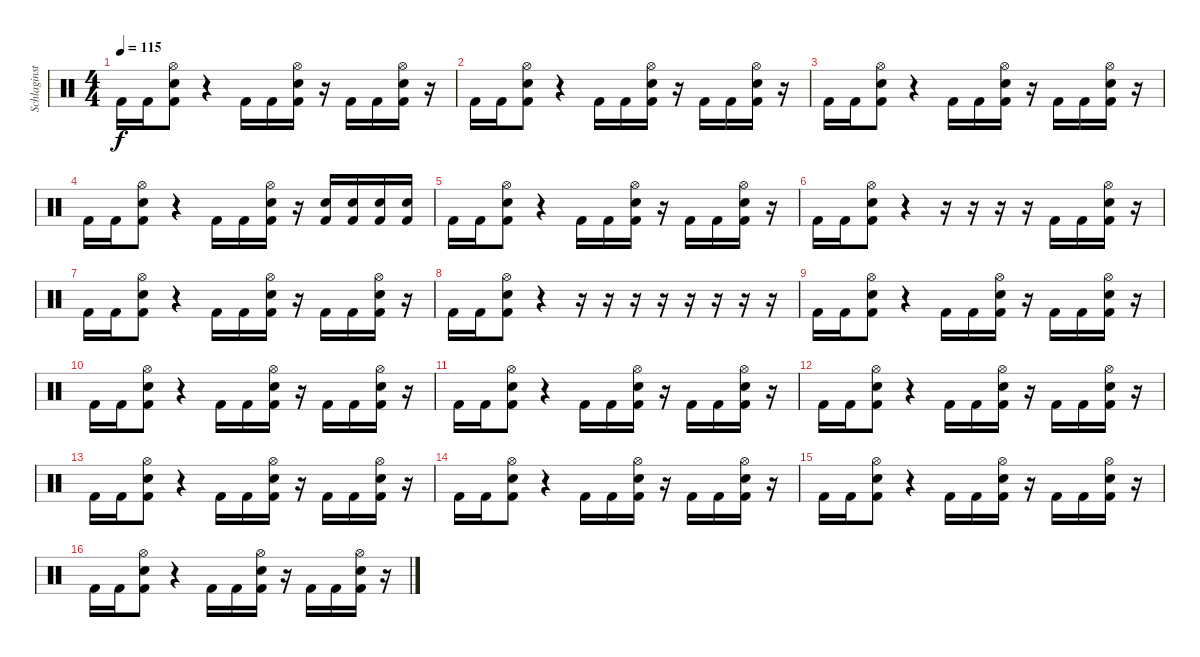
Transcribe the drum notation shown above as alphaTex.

\track ("Schlaginstrumente - Auswahl" "Schlaginst") {instrument percussion}
\staff {score}
\articulation defaults
\ts (4 4)
\tempo 115
\clef neutral
\ks c "Kick (hit) 2".16{dy f} "Kick (hit) 2".16
("Kick (hit) 2" "Snare (hit) 2" "Hi-Hat (open)").8 r.4 "Kick (hit) 2".16 "Kick (hit) 2".16 ("Kick (hit) 2" "Snare (hit) 2" "Hi-Hat (open)").16 r.16 "Kick (hit) 2".16 "Kick (hit) 2".16 ("Kick (hit) 2" "Snare (hit) 2" "Hi-Hat (open)").16 r.16 |
"Kick (hit) 2".16 "Kick (hit) 2".16 ("Kick (hit) 2" "Snare (hit) 2" "Hi-Hat (open)").8 r.4 "Kick (hit) 2".16 "Kick (hit) 2".16 ("Kick (hit) 2" "Snare (hit) 2" "Hi-Hat (open)").16 r.16 "Kick (hit) 2".16 "Kick (hit) 2".16 ("Kick (hit) 2" "Snare (hit) 2" "Hi-Hat (open)").16 r.16 |
"Kick (hit) 2".16 "Kick (hit) 2".16 ("Kick (hit) 2" "Snare (hit) 2" "Hi-Hat (open)").8 r.4 "Kick (hit) 2".16 "Kick (hit) 2".16 ("Kick (hit) 2" "Snare (hit) 2" "Hi-Hat (open)").16 r.16 "Kick (hit) 2".16 "Kick (hit) 2".16 ("Kick (hit) 2" "Snare (hit) 2" "Hi-Hat (open)").16 r.16 |
"Kick (hit) 2".16 "Kick (hit) 2".16 ("Kick (hit) 2" "Snare (hit) 2" "Hi-Hat (open)").8 r.4 "Kick (hit) 2".16 "Kick (hit) 2".16 ("Kick (hit) 2" "Snare (hit) 2" "Hi-Hat (open)").16 r.16 ("Kick (hit) 2" "Snare (hit) 2").16 ("Kick (hit) 2" "Snare (hit) 2").16 ("Kick (hit) 2" "Snare (hit) 2").16 ("Kick (hit) 2" "Snare (hit) 2").16 |
"Kick (hit) 2".16 "Kick (hit) 2".16 ("Kick (hit) 2" "Snare (hit) 2" "Hi-Hat (open)").8 r.4 "Kick (hit) 2".16 "Kick (hit) 2".16 ("Kick (hit) 2" "Snare (hit) 2" "Hi-Hat (open)").16 r.16 "Kick (hit) 2".16 "Kick (hit) 2".16 ("Kick (hit) 2" "Snare (hit) 2" "Hi-Hat (open)").16 r.16 |
"Kick (hit) 2".16 "Kick (hit) 2".16 ("Kick (hit) 2" "Snare (hit) 2" "Hi-Hat (open)").8 r.4 r.16 r.16 r.16 r.16 "Kick (hit) 2".16 "Kick (hit) 2".16 ("Kick (hit) 2" "Snare (hit) 2" "Hi-Hat (open)").16 r.16 |
"Kick (hit) 2".16 "Kick (hit) 2".16 ("Kick (hit) 2" "Snare (hit) 2" "Hi-Hat (open)").8 r.4 "Kick (hit) 2".16 "Kick (hit) 2".16 ("Kick (hit) 2" "Snare (hit) 2" "Hi-Hat (open)").16 r.16 "Kick (hit) 2".16 "Kick (hit) 2".16 ("Kick (hit) 2" "Snare (hit) 2" "Hi-Hat (open)").16 r.16 |
"Kick (hit) 2".16 "Kick (hit) 2".16 ("Kick (hit) 2" "Snare (hit) 2" "Hi-Hat (open)").8 r.4 r.16 r.16 r.16 r.16 r.16 r.16 r.16 r.16 |
"Kick (hit) 2".16 "Kick (hit) 2".16 ("Kick (hit) 2" "Snare (hit) 2" "Hi-Hat (open)").8 r.4 "Kick (hit) 2".16 "Kick (hit) 2".16 ("Kick (hit) 2" "Snare (hit) 2" "Hi-Hat (open)").16 r.16 "Kick (hit) 2".16 "Kick (hit) 2".16 ("Kick (hit) 2" "Snare (hit) 2" "Hi-Hat (open)").16 r.16 |
"Kick (hit) 2".16 "Kick (hit) 2".16 ("Kick (hit) 2" "Snare (hit) 2" "Hi-Hat (open)").8 r.4 "Kick (hit) 2".16 "Kick (hit) 2".16 ("Kick (hit) 2" "Snare (hit) 2" "Hi-Hat (open)").16 r.16 "Kick (hit) 2".16 "Kick (hit) 2".16 ("Kick (hit) 2" "Snare (hit) 2" "Hi-Hat (open)").16 r.16 |
"Kick (hit) 2".16 "Kick (hit) 2".16 ("Kick (hit) 2" "Snare (hit) 2" "Hi-Hat (open)").8 r.4 "Kick (hit) 2".16 "Kick (hit) 2".16 ("Kick (hit) 2" "Snare (hit) 2" "Hi-Hat (open)").16 r.16 "Kick (hit) 2".16 "Kick (hit) 2".16 ("Kick (hit) 2" "Snare (hit) 2" "Hi-Hat (open)").16 r.16 |
"Kick (hit) 2".16 "Kick (hit) 2".16 ("Kick (hit) 2" "Snare (hit) 2" "Hi-Hat (open)").8 r.4 "Kick (hit) 2".16 "Kick (hit) 2".16 ("Kick (hit) 2" "Snare (hit) 2" "Hi-Hat (open)").16 r.16 "Kick (hit) 2".16 "Kick (hit) 2".16 ("Kick (hit) 2" "Snare (hit) 2" "Hi-Hat (open)").16 r.16 |
"Kick (hit) 2".16 "Kick (hit) 2".16 ("Kick (hit) 2" "Snare (hit) 2" "Hi-Hat (open)").8 r.4 "Kick (hit) 2".16 "Kick (hit) 2".16 ("Kick (hit) 2" "Snare (hit) 2" "Hi-Hat (open)").16 r.16 "Kick (hit) 2".16 "Kick (hit) 2".16 ("Kick (hit) 2" "Snare (hit) 2" "Hi-Hat (open)").16 r.16 |
"Kick (hit) 2".16 "Kick (hit) 2".16 ("Kick (hit) 2" "Snare (hit) 2" "Hi-Hat (open)").8 r.4 "Kick (hit) 2".16 "Kick (hit) 2".16 ("Kick (hit) 2" "Snare (hit) 2" "Hi-Hat (open)").16 r.16 "Kick (hit) 2".16 "Kick (hit) 2".16 ("Kick (hit) 2" "Snare (hit) 2" "Hi-Hat (open)").16 r.16 |
"Kick (hit) 2".16 "Kick (hit) 2".16 ("Kick (hit) 2" "Snare (hit) 2" "Hi-Hat (open)").8 r.4 "Kick (hit) 2".16 "Kick (hit) 2".16 ("Kick (hit) 2" "Snare (hit) 2" "Hi-Hat (open)").16 r.16 "Kick (hit) 2".16 "Kick (hit) 2".16 ("Kick (hit) 2" "Snare (hit) 2" "Hi-Hat (open)").16 r.16 |
"Kick (hit) 2".16 "Kick (hit) 2".16 ("Kick (hit) 2" "Snare (hit) 2" "Hi-Hat (open)").8 r.4 "Kick (hit) 2".16 "Kick (hit) 2".16 ("Kick (hit) 2" "Snare (hit) 2" "Hi-Hat (open)").16 r.16 "Kick (hit) 2".16 "Kick (hit) 2".16 ("Kick (hit) 2" "Snare (hit) 2" "Hi-Hat (open)").16 r.16
